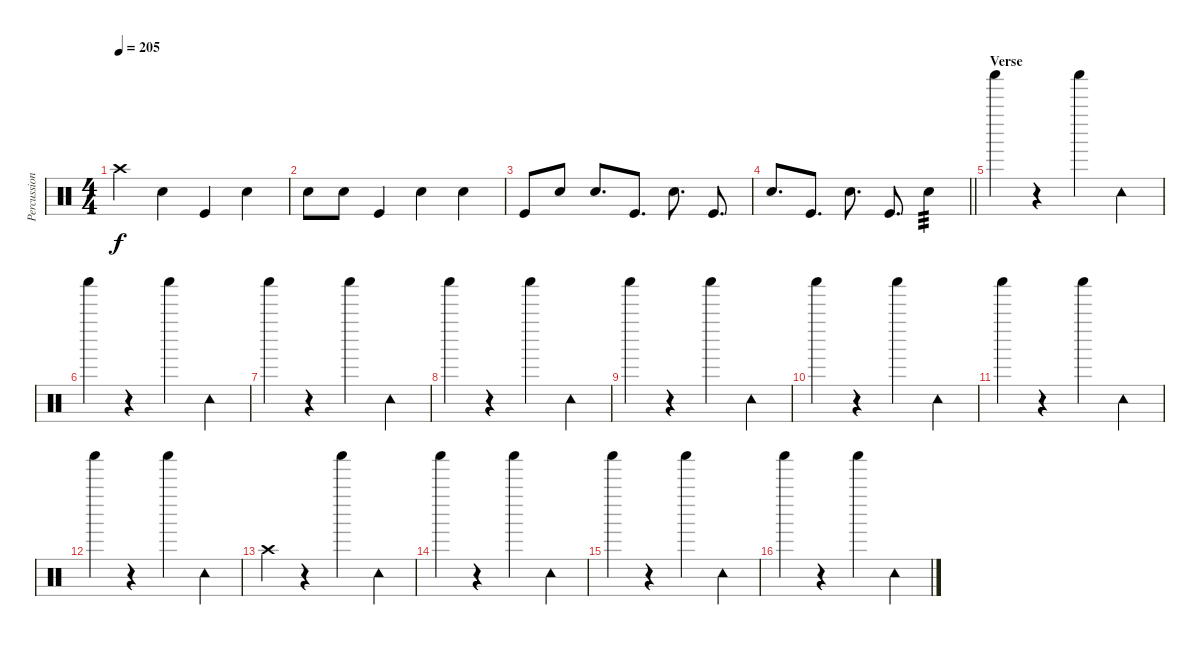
\track ("Percussion" "Percussion") {instrument percussion}
\staff {score}
\articulation defaults
\ts (4 4)
\tempo 205
\clef neutral
\ks c "Crash high (hit)".4{dy f} "Electric Snare (hit)".4 "Kick (hit)".4 "Electric Snare (hit)".4
|
"Electric Snare (hit)".8 "Electric Snare (hit)".8 "Kick (hit)".4 "Electric Snare (hit)".4 "Electric Snare (hit)".4 |
"Kick (hit)".8 "Electric Snare (hit)".8 "Electric Snare (hit)".8{d} "Kick (hit)".8{d} "Electric Snare (hit)".8{d} "Kick (hit)".8{d} |
\barLineRight lightlight "Electric Snare (hit)".8{d} "Kick (hit)".8{d} "Electric Snare (hit)".8{d} "Kick (hit)".8{d} "Electric Snare (hit)".4{tp 3}
|
\section ("" "Verse")
"Shaker (hit)".4 r.4 "Shaker (hit)".4 "Tambourine (hit)".4 |
"Shaker (hit)".4 r.4 "Shaker (hit)".4 "Tambourine (hit)".4 |
"Shaker (hit)".4 r.4 "Shaker (hit)".4 "Tambourine (hit)".4 |
"Shaker (hit)".4 r.4 "Shaker (hit)".4 "Tambourine (hit)".4 |
"Shaker (hit)".4 r.4 "Shaker (hit)".4 "Tambourine (hit)".4 |
"Shaker (hit)".4 r.4 "Shaker (hit)".4 "Tambourine (hit)".4 |
"Shaker (hit)".4 r.4 "Shaker (hit)".4 "Tambourine (hit)".4 |
"Shaker (hit)".4 r.4 "Shaker (hit)".4 "Tambourine (hit)".4 |
"Crash high (hit)".4 r.4 "Shaker (hit)".4 "Tambourine (hit)".4 |
"Shaker (hit)".4 r.4 "Shaker (hit)".4 "Tambourine (hit)".4 |
"Shaker (hit)".4 r.4 "Shaker (hit)".4 "Tambourine (hit)".4 |
"Shaker (hit)".4 r.4 "Shaker (hit)".4 "Tambourine (hit)".4
